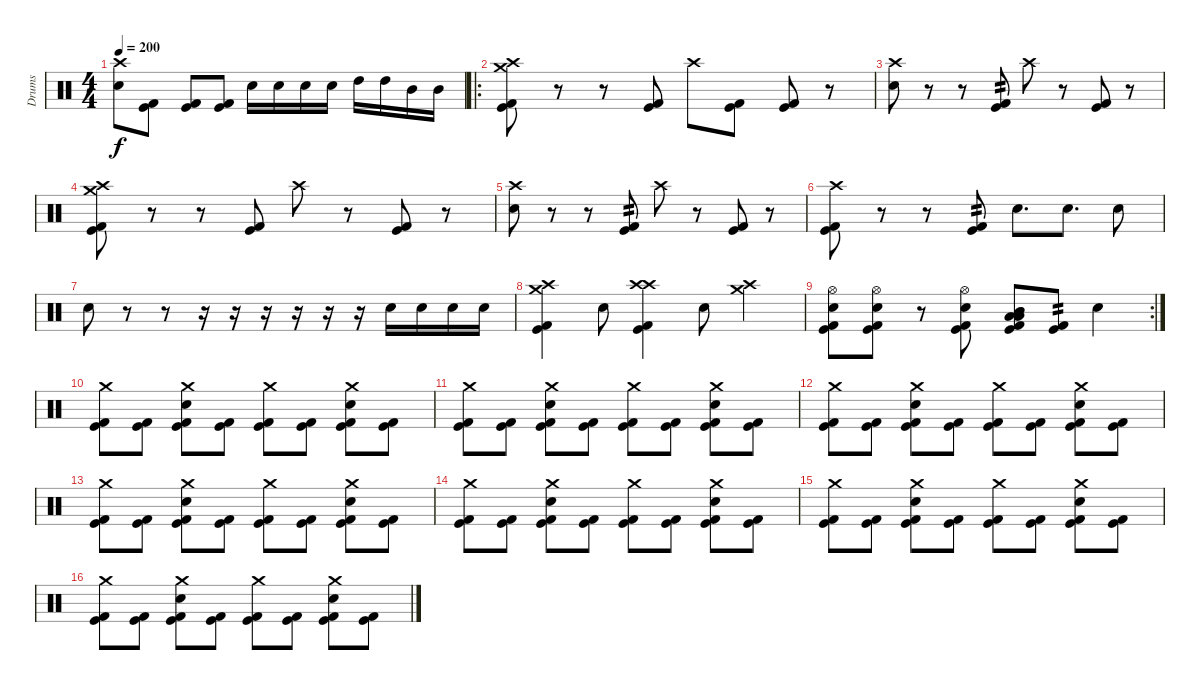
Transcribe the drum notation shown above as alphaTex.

\track ("Drums" "Drums") {instrument percussion}
\staff {score}
\articulation defaults
\ts (4 4)
\tempo 200
\clef neutral
\ks c
("Crash high (hit)" "Electric Snare (hit)").8{dy f} ("Kick (hit) 2" "Kick (hit)").8 ("Kick (hit) 2" "Kick (hit)").8 ("Kick (hit) 2" "Kick (hit)").8 "Electric Snare (hit)".16 "Electric Snare (hit)".16 "Electric Snare (hit)".16 "Electric Snare (hit)".16 "High Tom (hit)".16 "High Tom (hit)".16 "Mid Tom (hit)".16 "Mid Tom (hit)".16 |
\ro
("Crash medium (hit)" "Crash high (hit)" "Kick (hit) 2" "Kick (hit)").8 r.8 r.8 ("Kick (hit) 2" "Kick (hit)").8 "Crash high (hit)".8 ("Kick (hit) 2" "Kick (hit)").8 ("Kick (hit) 2" "Kick (hit)").8 r.8 |
("Crash high (hit)" "Electric Snare (hit)").8 r.8 r.8 ("Kick (hit) 2" "Kick (hit)").8{tp 2} "Crash high (hit)".8 r.8 ("Kick (hit) 2" "Kick (hit)").8 r.8 |
("Crash medium (hit)" "Crash high (hit)" "Kick (hit) 2" "Kick (hit)").8 r.8 r.8 ("Kick (hit) 2" "Kick (hit)").8 "Crash high (hit)".8 r.8 ("Kick (hit) 2" "Kick (hit)").8 r.8 |
("Crash high (hit)" "Electric Snare (hit)").8 r.8 r.8 ("Kick (hit) 2" "Kick (hit)").8{tp 2} "Crash high (hit)".8 r.8 ("Kick (hit) 2" "Kick (hit)").8 r.8 |
("Crash high (hit)" "Kick (hit) 2" "Kick (hit)").8 r.8 r.8 ("Kick (hit) 2" "Kick (hit)").8{tp 2} "Electric Snare (hit)".8{d} "Electric Snare (hit)".8{d} "Electric Snare (hit)".8 |
"Electric Snare (hit)".8 r.8 r.8 r.16 r.16 r.16 r.16 r.16 r.16 "Electric Snare (hit)".16 "Electric Snare (hit)".16 "Electric Snare (hit)".16 "Electric Snare (hit)".16 |
("Crash medium (hit)" "Crash high (hit)" "Kick (hit) 2" "Kick (hit)").4 "Electric Snare (hit)".8 ("Crash high (hit)" "Crash high (hit)" "Kick (hit) 2" "Kick (hit)").4 "Electric Snare (hit)".8 ("Crash medium (hit)" "Crash high (hit)").4 |
\rc 2
("Hi-Hat (open)" "Electric Snare (hit)" "Kick (hit) 2" "Kick (hit)").8 ("Hi-Hat (open)" "Electric Snare (hit)" "Kick (hit) 2" "Kick (hit)").8 r.8 ("Hi-Hat (open)" "Electric Snare (hit)" "Kick (hit) 2" "Kick (hit)").8 ("Mid Tom (hit)" "Mid Tom (hit)" "Low Tom (hit)" "Low Tom (hit)" "Kick (hit) 2" "Kick (hit)").8 ("Kick (hit) 2" "Kick (hit)").8{tp 2} "Electric Snare (hit)".4 |
("Crash medium (hit)" "Kick (hit) 2" "Kick (hit)").8 ("Kick (hit) 2" "Kick (hit)").8 ("Crash medium (hit)" "Electric Snare (hit)" "Kick (hit) 2" "Kick (hit)").8 ("Kick (hit) 2" "Kick (hit)").8 ("Crash medium (hit)" "Kick (hit) 2" "Kick (hit)").8 ("Kick (hit) 2" "Kick (hit)").8 ("Crash medium (hit)" "Electric Snare (hit)" "Kick (hit) 2" "Kick (hit)").8 ("Kick (hit) 2" "Kick (hit)").8 |
("Crash medium (hit)" "Kick (hit) 2" "Kick (hit)").8 ("Kick (hit) 2" "Kick (hit)").8 ("Crash medium (hit)" "Electric Snare (hit)" "Kick (hit) 2" "Kick (hit)").8 ("Kick (hit) 2" "Kick (hit)").8 ("Crash medium (hit)" "Kick (hit) 2" "Kick (hit)").8 ("Kick (hit) 2" "Kick (hit)").8 ("Crash medium (hit)" "Electric Snare (hit)" "Kick (hit) 2" "Kick (hit)").8 ("Kick (hit) 2" "Kick (hit)").8 |
("Crash medium (hit)" "Kick (hit) 2" "Kick (hit)").8 ("Kick (hit) 2" "Kick (hit)").8 ("Crash medium (hit)" "Electric Snare (hit)" "Kick (hit) 2" "Kick (hit)").8 ("Kick (hit) 2" "Kick (hit)").8 ("Crash medium (hit)" "Kick (hit) 2" "Kick (hit)").8 ("Kick (hit) 2" "Kick (hit)").8 ("Crash medium (hit)" "Electric Snare (hit)" "Kick (hit) 2" "Kick (hit)").8 ("Kick (hit) 2" "Kick (hit)").8 |
("Crash medium (hit)" "Kick (hit) 2" "Kick (hit)").8 ("Kick (hit) 2" "Kick (hit)").8 ("Crash medium (hit)" "Electric Snare (hit)" "Kick (hit) 2" "Kick (hit)").8 ("Kick (hit) 2" "Kick (hit)").8 ("Crash medium (hit)" "Kick (hit) 2" "Kick (hit)").8 ("Kick (hit) 2" "Kick (hit)").8 ("Crash medium (hit)" "Electric Snare (hit)" "Kick (hit) 2" "Kick (hit)").8 ("Kick (hit) 2" "Kick (hit)").8 |
("Crash medium (hit)" "Kick (hit) 2" "Kick (hit)").8 ("Kick (hit) 2" "Kick (hit)").8 ("Crash medium (hit)" "Electric Snare (hit)" "Kick (hit) 2" "Kick (hit)").8 ("Kick (hit) 2" "Kick (hit)").8 ("Crash medium (hit)" "Kick (hit) 2" "Kick (hit)").8 ("Kick (hit) 2" "Kick (hit)").8 ("Crash medium (hit)" "Electric Snare (hit)" "Kick (hit) 2" "Kick (hit)").8 ("Kick (hit) 2" "Kick (hit)").8 |
("Crash medium (hit)" "Kick (hit) 2" "Kick (hit)").8 ("Kick (hit) 2" "Kick (hit)").8 ("Crash medium (hit)" "Electric Snare (hit)" "Kick (hit) 2" "Kick (hit)").8 ("Kick (hit) 2" "Kick (hit)").8 ("Crash medium (hit)" "Kick (hit) 2" "Kick (hit)").8 ("Kick (hit) 2" "Kick (hit)").8 ("Crash medium (hit)" "Electric Snare (hit)" "Kick (hit) 2" "Kick (hit)").8 ("Kick (hit) 2" "Kick (hit)").8 |
("Crash medium (hit)" "Kick (hit) 2" "Kick (hit)").8 ("Kick (hit) 2" "Kick (hit)").8 ("Crash medium (hit)" "Electric Snare (hit)" "Kick (hit) 2" "Kick (hit)").8 ("Kick (hit) 2" "Kick (hit)").8 ("Crash medium (hit)" "Kick (hit) 2" "Kick (hit)").8 ("Kick (hit) 2" "Kick (hit)").8 ("Crash medium (hit)" "Electric Snare (hit)" "Kick (hit) 2" "Kick (hit)").8 ("Kick (hit) 2" "Kick (hit)").8
